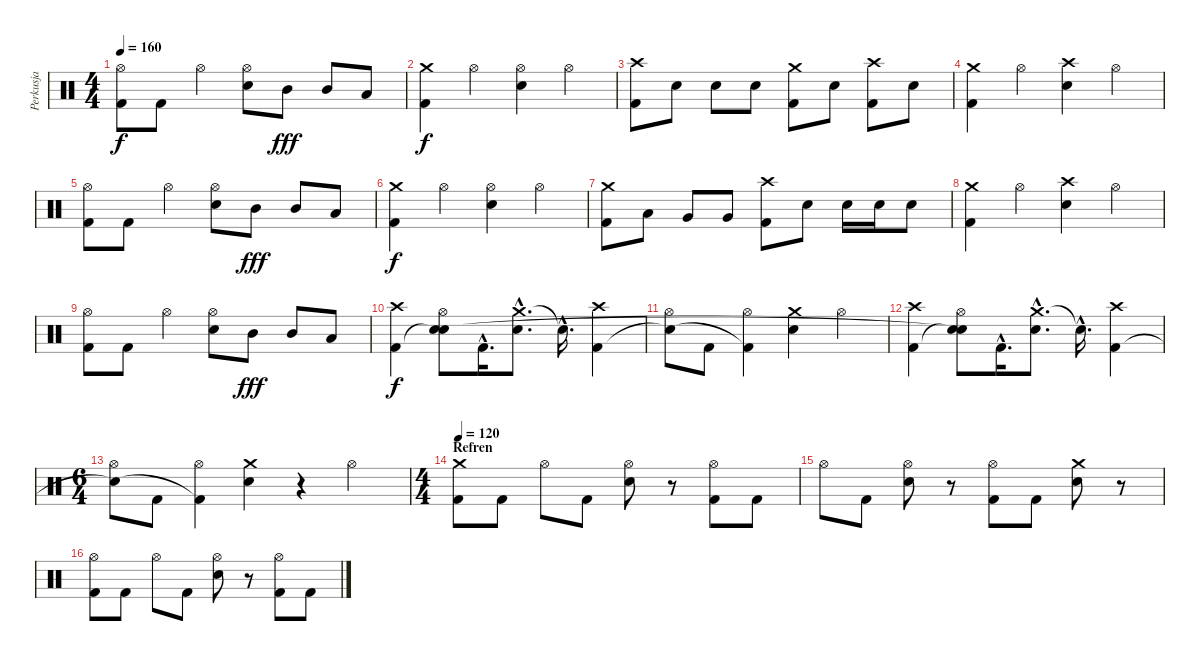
\track ("Perkusja" "Perkusja") {instrument percussion}
\staff {score}
\articulation defaults
\ts (4 4)
\tempo 160
\clef neutral
\ks c
("Hi-Hat (open)" "Kick (hit) 2").8{dy f} "Kick (hit) 2".8 "Hi-Hat (open)".4 ("Hi-Hat (open)" "Snare (hit) 2").8 "Mid Tom (hit)".8{dy fff} "Mid Tom (hit)".8 "Low Tom (hit)".8 |
("Crash medium (hit)" "Kick (hit) 2").4{dy f} "Hi-Hat (open)".4 ("Hi-Hat (open)" "Snare (hit) 2").4 "Hi-Hat (open)".4 |
("Crash high (hit)" "Kick (hit) 2").8 "Snare (hit) 2".8 "Snare (hit) 2".8 "Snare (hit) 2".8 ("Crash medium (hit)" "Kick (hit) 2").8 "Snare (hit) 2".8 ("Crash high (hit)" "Kick (hit) 2").8 "Snare (hit) 2".8 |
("Crash medium (hit)" "Kick (hit) 2").4 "Hi-Hat (open)".4 ("Crash high (hit)" "Snare (hit) 2").4 "Hi-Hat (open)".4 |
("Hi-Hat (open)" "Kick (hit) 2").8 "Kick (hit) 2".8 "Hi-Hat (open)".4 ("Hi-Hat (open)" "Snare (hit) 2").8 "Mid Tom (hit)".8{dy fff} "Mid Tom (hit)".8 "Low Tom (hit)".8 |
("Crash medium (hit)" "Kick (hit) 2").4{dy f} "Hi-Hat (open)".4 ("Hi-Hat (open)" "Snare (hit) 2").4 "Hi-Hat (open)".4 |
("Crash medium (hit)" "Kick (hit) 2").8 "Low Tom (hit)".8 "Very Low Tom (hit)".8 "Very Low Tom (hit)".8 ("Crash high (hit)" "Kick (hit) 2").8 "Snare (hit) 2".8 "Snare (hit) 2".16 "Snare (hit) 2".16 "Snare (hit) 2".8 |
("Crash medium (hit)" "Kick (hit) 2").4 "Hi-Hat (open)".4 ("Crash high (hit)" "Snare (hit) 2").4 "Hi-Hat (open)".4 |
("Hi-Hat (open)" "Kick (hit) 2").8 "Kick (hit) 2".8 "Hi-Hat (open)".4 ("Hi-Hat (open)" "Snare (hit) 2").8 "Mid Tom (hit)".8{dy fff} "Mid Tom (hit)".8 "Low Tom (hit)".8 |
("Crash high (hit)" "Kick (hit) 2").4{dy f} ("Hi-Hat (open)" "Snare (hit)"{t} "Snare (hit)").8 "Kick (hit) 2"{hac}.16{d} ("Crash medium (hit)"{hac} "Snare (hit) 2"{hac}).8{d} "Snare (hit)"{hac t}.16{d} ("Crash high (hit)" "Kick (hit) 2").4 |
("Hi-Hat (open)" "Snare (hit)"{t}).8 "Kick (hit) 2".8 ("Hi-Hat (open)" "Kick (hit) 2"{t}).4 ("Crash medium (hit)" "Snare (hit) 2").4 "Hi-Hat (open)".4 |
("Crash high (hit)" "Kick (hit) 2").4 ("Hi-Hat (open)" "Snare (hit)"{t} "Snare (hit)"{t}).8 "Kick (hit) 2"{hac}.16{d} ("Crash medium (hit)"{hac} "Snare (hit) 2"{hac}).8{d} "Snare (hit)"{hac t}.16{d} ("Crash high (hit)" "Kick (hit) 2").4 |
\ts (6 4)
("Hi-Hat (open)" "Snare (hit)"{t}).8 "Kick (hit) 2".8 ("Hi-Hat (open)" "Kick (hit) 2"{t}).4 ("Crash medium (hit)" "Snare (hit) 2").4 r.4 "Hi-Hat (open)".2 |
\ts (4 4)
\section ("" "Refren")
\tempo 120
("Crash medium (hit)" "Kick (hit) 2").8 "Kick (hit) 2".8 "Hi-Hat (open)".8 "Kick (hit) 2".8 ("Hi-Hat (open)" "Snare (hit) 2").8 r.8 ("Hi-Hat (open)" "Kick (hit) 2").8 "Kick (hit) 2".8 |
"Hi-Hat (open)".8 "Kick (hit) 2".8 ("Hi-Hat (open)" "Snare (hit) 2").8 r.8 ("Hi-Hat (open)" "Kick (hit) 2").8 "Kick (hit) 2".8 ("Crash medium (hit)" "Snare (hit) 2").8 r.8 |
("Hi-Hat (open)" "Kick (hit) 2").8 "Kick (hit) 2".8 "Hi-Hat (open)".8 "Kick (hit) 2".8 ("Hi-Hat (open)" "Snare (hit) 2").8 r.8 ("Hi-Hat (open)" "Kick (hit) 2").8 "Kick (hit) 2".8
